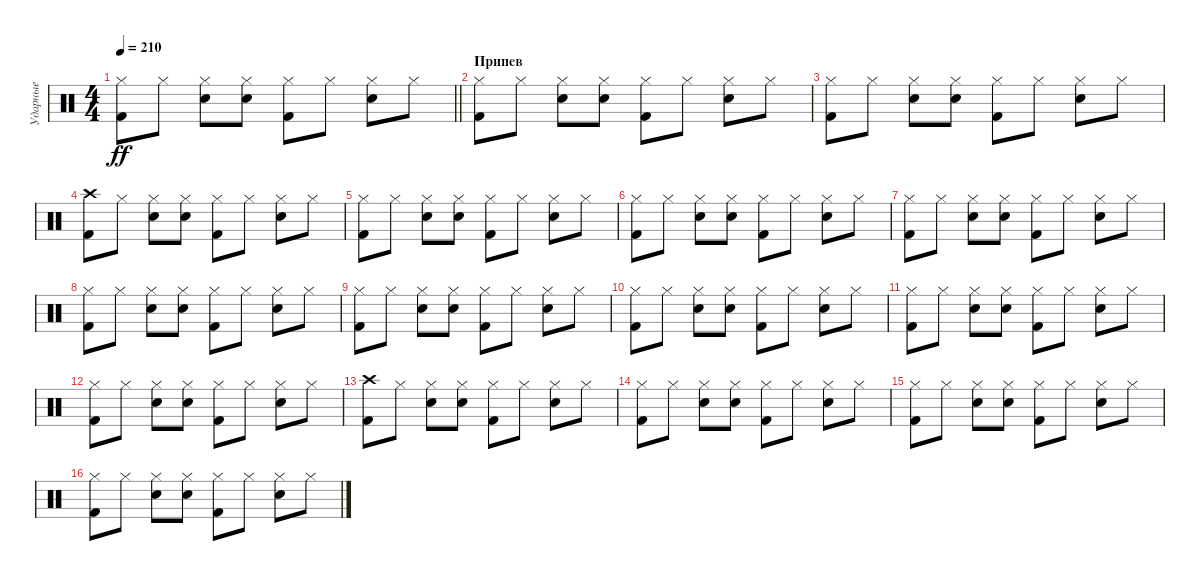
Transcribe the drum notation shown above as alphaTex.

\track ("Ударные" "Ударные") {instrument percussion}
\staff {score}
\articulation defaults
\ts (4 4)
\tempo 210
\clef neutral
\barLineRight lightlight
\ks c
("Hi-Hat (closed)" "Kick (hit) 2").8{dy ff} "Hi-Hat (closed)".8 ("Hi-Hat (closed)" "Snare (hit) 2").8 ("Hi-Hat (closed)" "Snare (hit) 2").8 ("Hi-Hat (closed)" "Kick (hit) 2").8 "Hi-Hat (closed)".8 ("Hi-Hat (closed)" "Snare (hit) 2").8 "Hi-Hat (closed)".8 |
\section ("" "Припев")
("Hi-Hat (closed)" "Kick (hit) 2").8 "Hi-Hat (closed)".8 ("Hi-Hat (closed)" "Snare (hit) 2").8 ("Hi-Hat (closed)" "Snare (hit) 2").8 ("Hi-Hat (closed)" "Kick (hit) 2").8 "Hi-Hat (closed)".8 ("Hi-Hat (closed)" "Snare (hit) 2").8 "Hi-Hat (closed)".8 |
("Hi-Hat (closed)" "Kick (hit) 2").8 "Hi-Hat (closed)".8 ("Hi-Hat (closed)" "Snare (hit) 2").8 ("Hi-Hat (closed)" "Snare (hit) 2").8 ("Hi-Hat (closed)" "Kick (hit) 2").8 "Hi-Hat (closed)".8 ("Hi-Hat (closed)" "Snare (hit) 2").8 "Hi-Hat (closed)".8 |
("Crash high (hit)" "Kick (hit) 2").8 "Hi-Hat (closed)".8 ("Hi-Hat (closed)" "Snare (hit) 2").8 ("Hi-Hat (closed)" "Snare (hit) 2").8 ("Hi-Hat (closed)" "Kick (hit) 2").8 "Hi-Hat (closed)".8 ("Hi-Hat (closed)" "Snare (hit) 2").8 "Hi-Hat (closed)".8 |
("Hi-Hat (closed)" "Kick (hit) 2").8 "Hi-Hat (closed)".8 ("Hi-Hat (closed)" "Snare (hit) 2").8 ("Hi-Hat (closed)" "Snare (hit) 2").8 ("Hi-Hat (closed)" "Kick (hit) 2").8 "Hi-Hat (closed)".8 ("Hi-Hat (closed)" "Snare (hit) 2").8 "Hi-Hat (closed)".8 |
("Hi-Hat (closed)" "Kick (hit) 2").8 "Hi-Hat (closed)".8 ("Hi-Hat (closed)" "Snare (hit) 2").8 ("Hi-Hat (closed)" "Snare (hit) 2").8 ("Hi-Hat (closed)" "Kick (hit) 2").8 "Hi-Hat (closed)".8 ("Hi-Hat (closed)" "Snare (hit) 2").8 "Hi-Hat (closed)".8 |
("Hi-Hat (closed)" "Kick (hit) 2").8 "Hi-Hat (closed)".8 ("Hi-Hat (closed)" "Snare (hit) 2").8 ("Hi-Hat (closed)" "Snare (hit) 2").8 ("Hi-Hat (closed)" "Kick (hit) 2").8 "Hi-Hat (closed)".8 ("Hi-Hat (closed)" "Snare (hit) 2").8 "Hi-Hat (closed)".8 |
("Hi-Hat (closed)" "Kick (hit) 2").8 "Hi-Hat (closed)".8 ("Hi-Hat (closed)" "Snare (hit) 2").8 ("Hi-Hat (closed)" "Snare (hit) 2").8 ("Hi-Hat (closed)" "Kick (hit) 2").8 "Hi-Hat (closed)".8 ("Hi-Hat (closed)" "Snare (hit) 2").8 "Hi-Hat (closed)".8 |
("Hi-Hat (closed)" "Kick (hit) 2").8 "Hi-Hat (closed)".8 ("Hi-Hat (closed)" "Snare (hit) 2").8 ("Hi-Hat (closed)" "Snare (hit) 2").8 ("Hi-Hat (closed)" "Kick (hit) 2").8 "Hi-Hat (closed)".8 ("Hi-Hat (closed)" "Snare (hit) 2").8 "Hi-Hat (closed)".8 |
("Hi-Hat (closed)" "Kick (hit) 2").8 "Hi-Hat (closed)".8 ("Hi-Hat (closed)" "Snare (hit) 2").8 ("Hi-Hat (closed)" "Snare (hit) 2").8 ("Hi-Hat (closed)" "Kick (hit) 2").8 "Hi-Hat (closed)".8 ("Hi-Hat (closed)" "Snare (hit) 2").8 "Hi-Hat (closed)".8 |
("Hi-Hat (closed)" "Kick (hit) 2").8 "Hi-Hat (closed)".8 ("Hi-Hat (closed)" "Snare (hit) 2").8 ("Hi-Hat (closed)" "Snare (hit) 2").8 ("Hi-Hat (closed)" "Kick (hit) 2").8 "Hi-Hat (closed)".8 ("Hi-Hat (closed)" "Snare (hit) 2").8 "Hi-Hat (closed)".8 |
("Hi-Hat (closed)" "Kick (hit) 2").8 "Hi-Hat (closed)".8 ("Hi-Hat (closed)" "Snare (hit) 2").8 ("Hi-Hat (closed)" "Snare (hit) 2").8 ("Hi-Hat (closed)" "Kick (hit) 2").8 "Hi-Hat (closed)".8 ("Hi-Hat (closed)" "Snare (hit) 2").8 "Hi-Hat (closed)".8 |
("Crash high (hit)" "Kick (hit) 2").8 "Hi-Hat (closed)".8 ("Hi-Hat (closed)" "Snare (hit) 2").8 ("Hi-Hat (closed)" "Snare (hit) 2").8 ("Hi-Hat (closed)" "Kick (hit) 2").8 "Hi-Hat (closed)".8 ("Hi-Hat (closed)" "Snare (hit) 2").8 "Hi-Hat (closed)".8 |
("Hi-Hat (closed)" "Kick (hit) 2").8 "Hi-Hat (closed)".8 ("Hi-Hat (closed)" "Snare (hit) 2").8 ("Hi-Hat (closed)" "Snare (hit) 2").8 ("Hi-Hat (closed)" "Kick (hit) 2").8 "Hi-Hat (closed)".8 ("Hi-Hat (closed)" "Snare (hit) 2").8 "Hi-Hat (closed)".8 |
("Hi-Hat (closed)" "Kick (hit) 2").8 "Hi-Hat (closed)".8 ("Hi-Hat (closed)" "Snare (hit) 2").8 ("Hi-Hat (closed)" "Snare (hit) 2").8 ("Hi-Hat (closed)" "Kick (hit) 2").8 "Hi-Hat (closed)".8 ("Hi-Hat (closed)" "Snare (hit) 2").8 "Hi-Hat (closed)".8 |
("Hi-Hat (closed)" "Kick (hit) 2").8 "Hi-Hat (closed)".8 ("Hi-Hat (closed)" "Snare (hit) 2").8 ("Hi-Hat (closed)" "Snare (hit) 2").8 ("Hi-Hat (closed)" "Kick (hit) 2").8 "Hi-Hat (closed)".8 ("Hi-Hat (closed)" "Snare (hit) 2").8 "Hi-Hat (closed)".8
